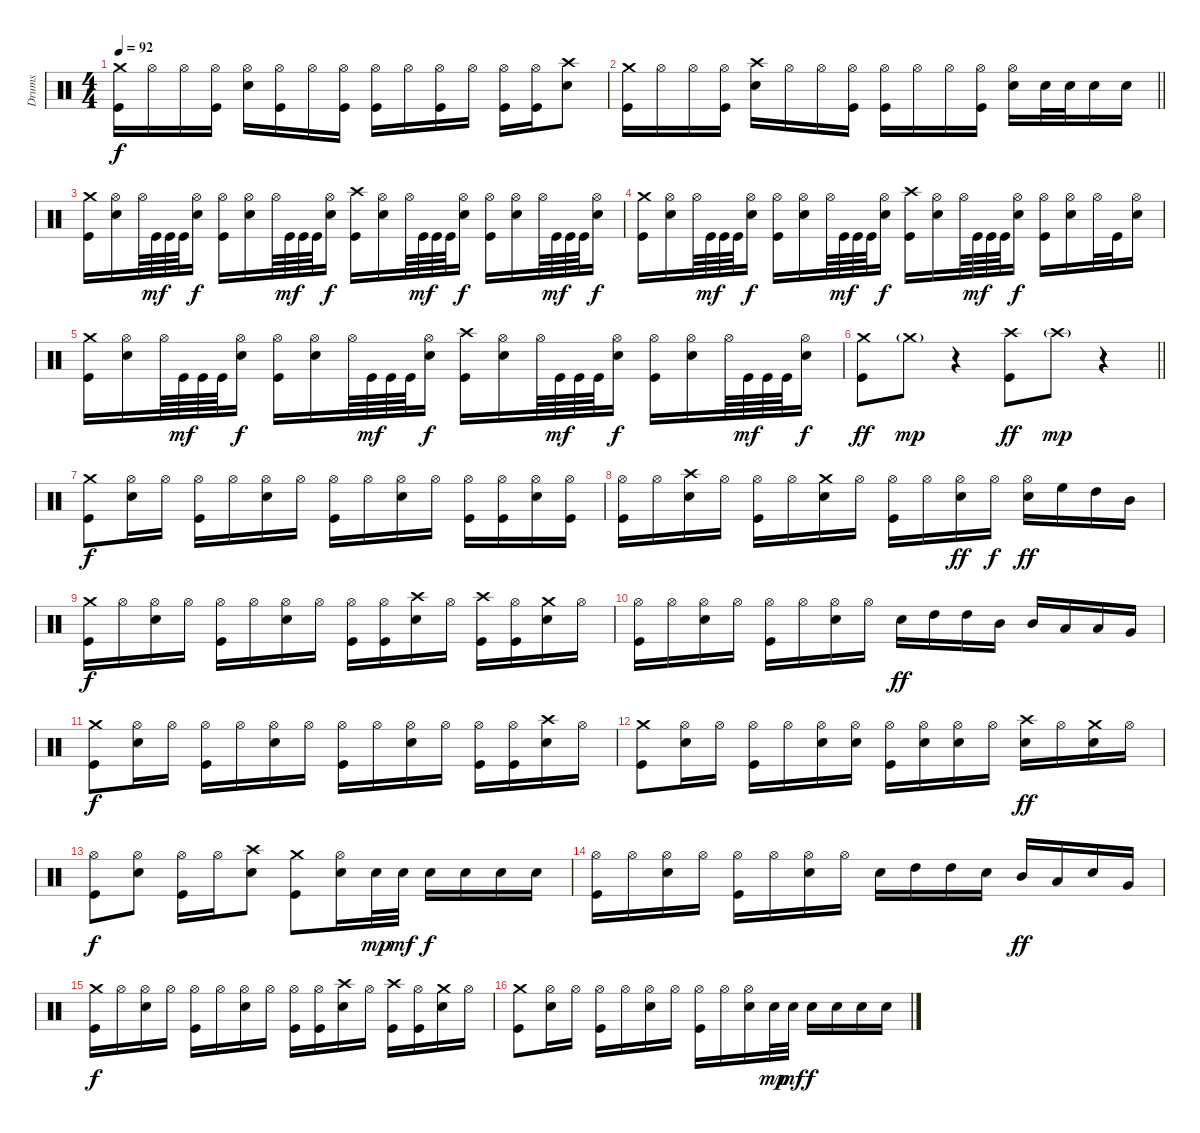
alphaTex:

\track ("Drums" "Drums") {instrument percussion}
\staff {score}
\articulation defaults
\ts (4 4)
\tempo 92
\clef neutral
\ks c
("Crash medium (hit)" "Kick (hit)").16{dy f} "Hi-Hat (open)".16 "Hi-Hat (open)".16 ("Hi-Hat (open)" "Kick (hit)").16 ("Hi-Hat (open)" "Snare (hit) 2").16 ("Hi-Hat (open)" "Kick (hit)").16 "Hi-Hat (open)".16 ("Hi-Hat (open)" "Kick (hit)").16 ("Hi-Hat (open)" "Kick (hit)").16 "Hi-Hat (open)".16 ("Hi-Hat (open)" "Kick (hit)").16 "Hi-Hat (open)".16 ("Hi-Hat (open)" "Kick (hit)").16 ("Hi-Hat (open)" "Kick (hit)").16 ("Crash high (hit)" "Snare (hit) 2").8 |
\barLineRight lightlight
("Crash medium (hit)" "Kick (hit)").16 "Hi-Hat (open)".16 "Hi-Hat (open)".16 ("Hi-Hat (open)" "Kick (hit)").16 ("Crash high (hit)" "Snare (hit) 2").16 "Hi-Hat (open)".16 "Hi-Hat (open)".16 ("Hi-Hat (open)" "Kick (hit)").16 ("Hi-Hat (open)" "Kick (hit)").16 "Hi-Hat (open)".16 "Hi-Hat (open)".16 ("Hi-Hat (open)" "Kick (hit)").16 ("Hi-Hat (open)" "Snare (hit) 2").16 "Snare (hit) 2".32 "Snare (hit) 2".32 "Snare (hit) 2".16 "Snare (hit) 2".16 |
("Crash medium (hit)" "Kick (hit)").16 ("Hi-Hat (open)" "Snare (hit) 2").16 "Hi-Hat (open)".64 "Kick (hit)".64{dy mf} "Kick (hit)".64 "Kick (hit)".64 ("Hi-Hat (open)" "Snare (hit) 2").16{dy f} ("Hi-Hat (open)" "Kick (hit)").16 ("Hi-Hat (open)" "Snare (hit) 2").16 "Hi-Hat (open)".64 "Kick (hit)".64{dy mf} "Kick (hit)".64 "Kick (hit)".64 ("Hi-Hat (open)" "Snare (hit) 2").16{dy f} ("Crash high (hit)" "Kick (hit)").16 ("Hi-Hat (open)" "Snare (hit) 2").16 "Hi-Hat (open)".64 "Kick (hit)".64{dy mf} "Kick (hit)".64 "Kick (hit)".64 ("Hi-Hat (open)" "Snare (hit) 2").16{dy f} ("Hi-Hat (open)" "Kick (hit)").16 ("Hi-Hat (open)" "Snare (hit) 2").16 "Hi-Hat (open)".64 "Kick (hit)".64{dy mf} "Kick (hit)".64 "Kick (hit)".64 ("Hi-Hat (open)" "Snare (hit) 2").16{dy f} |
("Crash medium (hit)" "Kick (hit)").16 ("Hi-Hat (open)" "Snare (hit) 2").16 "Hi-Hat (open)".64 "Kick (hit)".64{dy mf} "Kick (hit)".64 "Kick (hit)".64 ("Hi-Hat (open)" "Snare (hit) 2").16{dy f} ("Hi-Hat (open)" "Kick (hit)").16 ("Hi-Hat (open)" "Snare (hit) 2").16 "Hi-Hat (open)".64 "Kick (hit)".64{dy mf} "Kick (hit)".64 "Kick (hit)".64 ("Hi-Hat (open)" "Snare (hit) 2").16{dy f} ("Crash high (hit)" "Kick (hit)").16 ("Hi-Hat (open)" "Snare (hit) 2").16 "Hi-Hat (open)".64 "Kick (hit)".64{dy mf} "Kick (hit)".64 "Kick (hit)".64 ("Hi-Hat (open)" "Snare (hit) 2").16{dy f} ("Hi-Hat (open)" "Kick (hit)").16 ("Hi-Hat (open)" "Snare (hit) 2").16 "Hi-Hat (open)".32 "Kick (hit)".32 ("Hi-Hat (open)" "Snare (hit) 2").16 |
("Crash medium (hit)" "Kick (hit)").16 ("Hi-Hat (open)" "Snare (hit) 2").16 "Hi-Hat (open)".64 "Kick (hit)".64{dy mf} "Kick (hit)".64 "Kick (hit)".64 ("Hi-Hat (open)" "Snare (hit) 2").16{dy f} ("Hi-Hat (open)" "Kick (hit)").16 ("Hi-Hat (open)" "Snare (hit) 2").16 "Hi-Hat (open)".64 "Kick (hit)".64{dy mf} "Kick (hit)".64 "Kick (hit)".64 ("Hi-Hat (open)" "Snare (hit) 2").16{dy f} ("Crash high (hit)" "Kick (hit)").16 ("Hi-Hat (open)" "Snare (hit) 2").16 "Hi-Hat (open)".64 "Kick (hit)".64{dy mf} "Kick (hit)".64 "Kick (hit)".64 ("Hi-Hat (open)" "Snare (hit) 2").16{dy f} ("Hi-Hat (open)" "Kick (hit)").16 ("Hi-Hat (open)" "Snare (hit) 2").16 "Hi-Hat (open)".64 "Kick (hit)".64{dy mf} "Kick (hit)".64 "Kick (hit)".64 ("Hi-Hat (open)" "Snare (hit) 2").16{dy f} |
\barLineRight lightlight
("Crash medium (hit)" "Kick (hit)").8{dy ff} "Crash medium (hit)"{g}.8{dy mp} r.4 ("Crash high (hit)" "Kick (hit)").8{dy ff} "Crash high (hit)"{g}.8{dy mp} r.4 |
("Crash medium (hit)" "Kick (hit)").8{dy f} ("Hi-Hat (open)" "Snare (hit) 2").16 "Hi-Hat (open)".16 ("Hi-Hat (open)" "Kick (hit)").16 "Hi-Hat (open)".16 ("Hi-Hat (open)" "Snare (hit) 2").16 "Hi-Hat (open)".16 ("Hi-Hat (open)" "Kick (hit)").16 "Hi-Hat (open)".16 ("Hi-Hat (open)" "Snare (hit) 2").16 "Hi-Hat (open)".16 ("Hi-Hat (open)" "Kick (hit)").16 ("Hi-Hat (open)" "Kick (hit)").16 ("Hi-Hat (open)" "Snare (hit) 2").16 ("Hi-Hat (open)" "Kick (hit)").16 |
("Hi-Hat (open)" "Kick (hit)").16 "Hi-Hat (open)".16 ("Crash high (hit)" "Snare (hit) 2").16 "Hi-Hat (open)".16 ("Hi-Hat (open)" "Kick (hit)").16 "Hi-Hat (open)".16 ("Crash medium (hit)" "Snare (hit) 2").16 "Hi-Hat (open)".16 ("Hi-Hat (open)" "Kick (hit)").16 "Hi-Hat (open)".16 ("Hi-Hat (open)" "Snare (hit) 2").16{dy ff} "Hi-Hat (open)".16{dy f} ("Hi-Hat (open)" "Snare (hit) 2").16{dy ff} "High Floor Tom (hit)".16 "High Tom (hit)".16 "Mid Tom (hit)".16 |
("Crash medium (hit)" "Kick (hit)").16{dy f} "Hi-Hat (open)".16 ("Hi-Hat (open)" "Snare (hit) 2").16 "Hi-Hat (open)".16 ("Hi-Hat (open)" "Kick (hit)").16 "Hi-Hat (open)".16 ("Hi-Hat (open)" "Snare (hit) 2").16 "Hi-Hat (open)".16 ("Hi-Hat (open)" "Kick (hit)").16 ("Hi-Hat (open)" "Kick (hit)").16 ("Crash high (hit)" "Snare (hit) 2").16 "Hi-Hat (open)".16 ("Crash high (hit)" "Kick (hit)").16 ("Hi-Hat (open)" "Kick (hit)").16 ("Crash medium (hit)" "Snare (hit) 2").16 "Hi-Hat (open)".16 |
("Hi-Hat (open)" "Kick (hit)").16 "Hi-Hat (open)".16 ("Hi-Hat (open)" "Snare (hit) 2").16 "Hi-Hat (open)".16 ("Hi-Hat (open)" "Kick (hit)").16 "Hi-Hat (open)".16 ("Hi-Hat (open)" "Snare (hit) 2").16 "Hi-Hat (open)".16 "Snare (hit) 2".16{dy ff} "High Tom (hit)".16 "High Tom (hit)".16 "Mid Tom (hit)".16 "Mid Tom (hit)".16 "Low Tom (hit)".16 "Low Tom (hit)".16 "Very Low Tom (hit)".16 |
("Crash medium (hit)" "Kick (hit)").8{dy f} ("Hi-Hat (open)" "Snare (hit) 2").16 "Hi-Hat (open)".16 ("Hi-Hat (open)" "Kick (hit)").16 "Hi-Hat (open)".16 ("Hi-Hat (open)" "Snare (hit) 2").16 "Hi-Hat (open)".16 ("Hi-Hat (open)" "Kick (hit)").16 "Hi-Hat (open)".16 ("Hi-Hat (open)" "Snare (hit) 2").16 "Hi-Hat (open)".16 ("Hi-Hat (open)" "Kick (hit)").16 ("Hi-Hat (open)" "Kick (hit)").16 ("Crash high (hit)" "Snare (hit) 2").16 "Hi-Hat (open)".16 |
("Crash medium (hit)" "Kick (hit)").8 ("Hi-Hat (open)" "Snare (hit) 2").16 "Hi-Hat (open)".16 ("Hi-Hat (open)" "Kick (hit)").16 "Hi-Hat (open)".16 ("Hi-Hat (open)" "Snare (hit) 2").16 ("Hi-Hat (open)" "Snare (hit) 2").16 ("Hi-Hat (open)" "Kick (hit)").16 ("Hi-Hat (open)" "Snare (hit) 2").16 ("Hi-Hat (open)" "Snare (hit) 2").16 "Hi-Hat (open)".16 ("Crash high (hit)" "Snare (hit) 2").16{dy ff} "Hi-Hat (open)".16 ("Crash medium (hit)" "Snare (hit) 2").16 "Hi-Hat (open)".16 |
("Hi-Hat (open)" "Kick (hit)").8{dy f} ("Hi-Hat (open)" "Snare (hit) 2").8 ("Hi-Hat (open)" "Kick (hit)").16 "Hi-Hat (open)".16 ("Crash high (hit)" "Snare (hit) 2").8 ("Crash medium (hit)" "Kick (hit)").8 ("Hi-Hat (open)" "Snare (hit) 2").16 "Snare (hit) 2".32{dy mp} "Snare (hit) 2".32{dy mf} "Snare (hit) 2".16{dy f} "Snare (hit) 2".16 "Snare (hit) 2".16 "Snare (hit) 2".16 |
("Hi-Hat (open)" "Kick (hit)").16 "Hi-Hat (open)".16 ("Hi-Hat (open)" "Snare (hit) 2").16 "Hi-Hat (open)".16 ("Hi-Hat (open)" "Kick (hit)").16 "Hi-Hat (open)".16 ("Hi-Hat (open)" "Snare (hit) 2").16 "Hi-Hat (open)".16 "Snare (hit) 2".16 "High Tom (hit)".16 "High Tom (hit)".16 "Snare (hit) 2".16 "Mid Tom (hit)".16{dy ff} "Low Tom (hit)".16 "Snare (hit) 2".16 "Very Low Tom (hit)".16 |
("Crash medium (hit)" "Kick (hit)").16{dy f} "Hi-Hat (open)".16 ("Hi-Hat (open)" "Snare (hit) 2").16 "Hi-Hat (open)".16 ("Hi-Hat (open)" "Kick (hit)").16 "Hi-Hat (open)".16 ("Hi-Hat (open)" "Snare (hit) 2").16 "Hi-Hat (open)".16 ("Hi-Hat (open)" "Kick (hit)").16 ("Hi-Hat (open)" "Kick (hit)").16 ("Crash high (hit)" "Snare (hit) 2").16 "Hi-Hat (open)".16 ("Crash high (hit)" "Kick (hit)").16 ("Hi-Hat (open)" "Kick (hit)").16 ("Crash medium (hit)" "Snare (hit) 2").16 "Hi-Hat (open)".16 |
("Crash medium (hit)" "Kick (hit)").8 ("Hi-Hat (open)" "Snare (hit) 2").16 "Hi-Hat (open)".16 ("Hi-Hat (open)" "Kick (hit)").16 "Hi-Hat (open)".16 ("Hi-Hat (open)" "Snare (hit) 2").16 "Hi-Hat (open)".16 ("Hi-Hat (open)" "Kick (hit)").16 "Hi-Hat (open)".16 ("Hi-Hat (open)" "Snare (hit) 2").16 "Snare (hit) 2".32{dy mp} "Snare (hit) 2".32{dy mf} "Snare (hit) 2".16{dy f} "Snare (hit) 2".16 "Snare (hit) 2".16 "Snare (hit) 2".16
